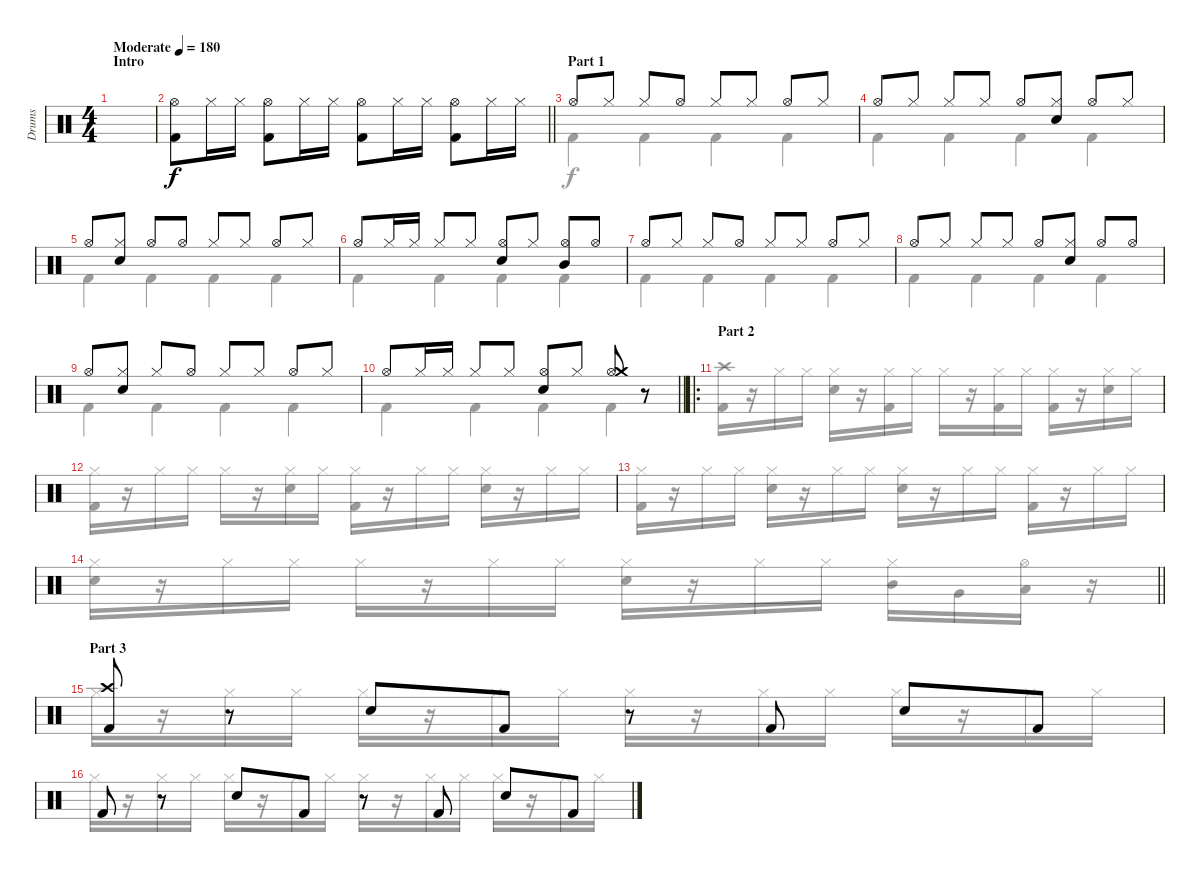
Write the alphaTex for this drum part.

\track ("Drums" "Drums") {instrument percussion}
\staff {score}
\articulation defaults
\voice
\ts (4 4)
\section ("" "Intro")
\tempo (180 "Moderate")
\clef neutral
\ks c
|
\barLineRight lightlight
("Hi-Hat (open)" "Kick (hit) 2").8 "Hi-Hat (closed)".16 "Hi-Hat (closed)".16 ("Hi-Hat (open)" "Kick (hit) 2").8 "Hi-Hat (closed)".16 "Hi-Hat (closed)".16 ("Hi-Hat (open)" "Kick (hit) 2").8 "Hi-Hat (closed)".16 "Hi-Hat (closed)".16 ("Hi-Hat (open)" "Kick (hit) 2").8 "Hi-Hat (closed)".16 "Hi-Hat (closed)".16 |
\section ("" "Part 1")
"Hi-Hat (open)".8 "Hi-Hat (closed)".8 "Hi-Hat (closed)".8 "Hi-Hat (open)".8 "Hi-Hat (closed)".8 "Hi-Hat (closed)".8 "Hi-Hat (open)".8 "Hi-Hat (closed)".8 |
"Hi-Hat (open)".8 "Hi-Hat (closed)".8 "Hi-Hat (closed)".8 "Hi-Hat (closed)".8 "Hi-Hat (open)".8 ("Hi-Hat (closed)" "Snare (hit) 2").8 "Hi-Hat (open)".8 "Hi-Hat (closed)".8 |
"Hi-Hat (open)".8 ("Hi-Hat (closed)" "Snare (hit) 2").8 "Hi-Hat (open)".8 "Hi-Hat (open)".8 "Hi-Hat (closed)".8 "Hi-Hat (closed)".8 "Hi-Hat (open)".8 "Hi-Hat (closed)".8 |
"Hi-Hat (open)".8 "Hi-Hat (closed)".16 "Hi-Hat (closed)".16 "Hi-Hat (closed)".8 "Hi-Hat (closed)".8 ("Hi-Hat (open)" "Snare (hit) 2").8 "Hi-Hat (closed)".8 ("Hi-Hat (open)" "Mid Tom (hit)").8 "Hi-Hat (open)".8 |
"Hi-Hat (open)".8 "Hi-Hat (closed)".8 "Hi-Hat (closed)".8 "Hi-Hat (open)".8 "Hi-Hat (closed)".8 "Hi-Hat (closed)".8 "Hi-Hat (open)".8 "Hi-Hat (closed)".8 |
"Hi-Hat (open)".8 "Hi-Hat (closed)".8 "Hi-Hat (closed)".8 "Hi-Hat (closed)".8 "Hi-Hat (open)".8 ("Hi-Hat (closed)" "Snare (hit) 2").8 "Hi-Hat (open)".8 "Hi-Hat (open)".8 |
"Hi-Hat (open)".8 ("Hi-Hat (closed)" "Snare (hit) 2").8 "Hi-Hat (closed)".8 "Hi-Hat (open)".8 "Hi-Hat (closed)".8 "Hi-Hat (closed)".8 "Hi-Hat (open)".8 "Hi-Hat (closed)".8 |
\barLineRight lightlight "Hi-Hat (open)".8 "Hi-Hat (closed)".16 "Hi-Hat (closed)".16 "Hi-Hat (closed)".8 "Hi-Hat (closed)".8
("Hi-Hat (open)" "Snare (hit) 2").8 "Hi-Hat (closed)".8 ("Hi-Hat (open)" "Crash medium (hit)").8 r.8 |
\ro
\section ("" "Part 2")
|
|
|
\barLineRight lightlight
|
\section ("" "Part 3")
("Crash high (hit)" "Kick (hit) 2").8 r.8 "Snare (hit) 2".8 "Kick (hit) 2".8 r.8 "Kick (hit) 2".8 "Snare (hit) 2".8 "Kick (hit) 2".8 |
"Kick (hit) 2".8 r.8 "Snare (hit) 2".8 "Kick (hit) 2".8 r.8 "Kick (hit) 2".8 "Snare (hit) 2".8 "Kick (hit) 2".8
\voice
\clef neutral
\ottava regular
\simile none
\ks c
|
\barLineRight lightlight
|
"Kick (hit) 2".4 "Kick (hit) 2".4 "Kick (hit) 2".4 "Kick (hit) 2".4 |
"Kick (hit) 2".4 "Kick (hit) 2".4 "Kick (hit) 2".4 "Kick (hit) 2".4 |
"Kick (hit) 2".4 "Kick (hit) 2".4 "Kick (hit) 2".4 "Kick (hit) 2".4 |
"Kick (hit) 2".4 "Kick (hit) 2".4 "Kick (hit) 2".4 "Kick (hit) 2".4 |
"Kick (hit) 2".4 "Kick (hit) 2".4 "Kick (hit) 2".4 "Kick (hit) 2".4 |
"Kick (hit) 2".4 "Kick (hit) 2".4 "Kick (hit) 2".4 "Kick (hit) 2".4 |
"Kick (hit) 2".4 "Kick (hit) 2".4 "Kick (hit) 2".4 "Kick (hit) 2".4 |
\barLineRight lightlight "Kick (hit) 2".4 "Kick (hit) 2".4 "Kick (hit) 2".4 "Kick (hit) 2".4
|
("Crash high (hit)" "Kick (hit) 2").16 r.16 "Hi-Hat (closed)".16 "Hi-Hat (closed)".16 ("Hi-Hat (closed)" "Snare (hit) 2").16 r.16 ("Hi-Hat (closed)" "Kick (hit) 2").16 "Hi-Hat (closed)".16 "Hi-Hat (closed)".16 r.16 ("Hi-Hat (closed)" "Kick (hit) 2").16 "Hi-Hat (closed)".16 ("Hi-Hat (closed)" "Kick (hit) 2").16 r.16 ("Hi-Hat (closed)" "Snare (hit) 2").16 "Hi-Hat (closed)".16 |
("Hi-Hat (closed)" "Kick (hit) 2").16 r.16 "Hi-Hat (closed)".16 "Hi-Hat (closed)".16 "Hi-Hat (closed)".16 r.16 ("Hi-Hat (closed)" "Snare (hit) 2").16 "Hi-Hat (closed)".16 ("Hi-Hat (closed)" "Kick (hit) 2").16 r.16 "Hi-Hat (closed)".16 "Hi-Hat (closed)".16 ("Hi-Hat (closed)" "Snare (hit) 2").16 r.16 "Hi-Hat (closed)".16 "Hi-Hat (closed)".16 |
("Hi-Hat (closed)" "Kick (hit) 2").16 r.16 "Hi-Hat (closed)".16 "Hi-Hat (closed)".16 ("Hi-Hat (closed)" "Snare (hit) 2").16 r.16 "Hi-Hat (closed)".16 "Hi-Hat (closed)".16 ("Hi-Hat (closed)" "Snare (hit) 2").16 r.16 "Hi-Hat (closed)".16 "Hi-Hat (closed)".16 ("Hi-Hat (closed)" "Kick (hit) 2").16 r.16 "Hi-Hat (closed)".16 "Hi-Hat (closed)".16 |
\barLineRight lightlight
("Hi-Hat (closed)" "Snare (hit) 2").16 r.16 "Hi-Hat (closed)".16 "Hi-Hat (closed)".16 "Hi-Hat (closed)".16 r.16 "Hi-Hat (closed)".16 "Hi-Hat (closed)".16 ("Hi-Hat (closed)" "Snare (hit) 2").16 r.16 "Hi-Hat (closed)".16 "Hi-Hat (closed)".16 ("Hi-Hat (closed)" "Mid Tom (hit)").16 "Very Low Tom (hit)".16 ("Hi-Hat (open)" "Low Floor Tom (hit)").16 r.16 |
"Hi-Hat (closed)".16 r.16 "Hi-Hat (closed)".16 "Hi-Hat (closed)".16 "Hi-Hat (closed)".16 r.16 "Hi-Hat (closed)".16 "Hi-Hat (closed)".16 "Hi-Hat (closed)".16 r.16 "Hi-Hat (closed)".16 "Hi-Hat (closed)".16 "Hi-Hat (closed)".16 r.16 "Hi-Hat (closed)".16 "Hi-Hat (closed)".16 |
"Hi-Hat (closed)".16 r.16 "Hi-Hat (closed)".16 "Hi-Hat (closed)".16 "Hi-Hat (closed)".16 r.16 "Hi-Hat (closed)".16 "Hi-Hat (closed)".16 "Hi-Hat (closed)".16 r.16 "Hi-Hat (closed)".16 "Hi-Hat (closed)".16 "Hi-Hat (closed)".16 r.16 "Hi-Hat (closed)".16 "Hi-Hat (closed)".16
